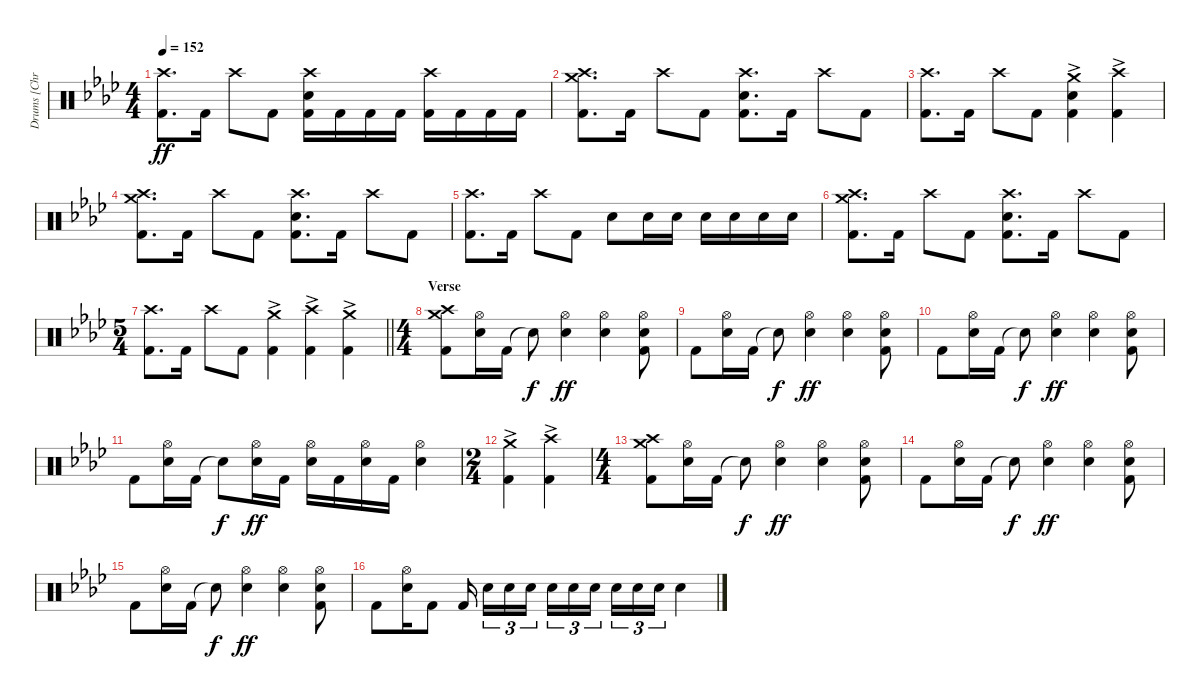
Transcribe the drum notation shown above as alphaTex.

\track ("Drums [Chris Hornbrook]" "Drums [Chr") {instrument percussion}
\staff {score}
\articulation defaults
\ts (4 4)
\tempo 152
\clef neutral
\ks fminor
("Crash high (hit)" "Kick (hit) 2").8{d dy ff} "Kick (hit) 2".16 "Crash high (hit)".8 "Kick (hit) 2".8 ("Crash high (hit)" "Electric Snare (hit)" "Kick (hit) 2").16 "Kick (hit) 2".16 "Kick (hit) 2".16 "Kick (hit) 2".16 ("Crash high (hit)" "Kick (hit) 2").16 "Kick (hit) 2".16 "Kick (hit) 2".16 "Kick (hit) 2".16 |
("Crash medium (hit)" "Crash high (hit)" "Kick (hit) 2").8{d} "Kick (hit) 2".16 "Crash high (hit)".8 "Kick (hit) 2".8 ("Crash high (hit)" "Electric Snare (hit)" "Kick (hit) 2").8{d} "Kick (hit) 2".16 "Crash high (hit)".8 "Kick (hit) 2".8 |
("Crash high (hit)" "Kick (hit) 2").8{d} "Kick (hit) 2".16 "Crash high (hit)".8 "Kick (hit) 2".8 ("Crash medium (hit)"{ac} "Electric Snare (hit)" "Kick (hit) 2").4 ("Crash high (hit)"{ac} "Kick (hit) 2").4 |
("Crash medium (hit)" "Crash high (hit)" "Kick (hit) 2").8{d} "Kick (hit) 2".16 "Crash high (hit)".8 "Kick (hit) 2".8 ("Crash high (hit)" "Electric Snare (hit)" "Kick (hit) 2").8{d} "Kick (hit) 2".16 "Crash high (hit)".8 "Kick (hit) 2".8 |
("Crash high (hit)" "Kick (hit) 2").8{d} "Kick (hit) 2".16 "Crash high (hit)".8 "Kick (hit) 2".8 "Electric Snare (hit)".8 "Electric Snare (hit)".16 "Electric Snare (hit)".16 "Electric Snare (hit)".16 "Electric Snare (hit)".16 "Electric Snare (hit)".16 "Electric Snare (hit)".16 |
("Crash medium (hit)" "Crash high (hit)" "Kick (hit) 2").8{d} "Kick (hit) 2".16 "Crash high (hit)".8 "Kick (hit) 2".8 ("Crash high (hit)" "Electric Snare (hit)" "Kick (hit) 2").8{d} "Kick (hit) 2".16 "Crash high (hit)".8 "Kick (hit) 2".8 |
\ts (5 4)
\barLineRight lightlight
("Crash high (hit)" "Kick (hit) 2").8{d} "Kick (hit) 2".16 "Crash high (hit)".8 "Kick (hit) 2".8 ("Crash medium (hit)"{ac} "Kick (hit) 2").4 ("Crash high (hit)"{ac} "Kick (hit) 2").4 ("Crash medium (hit)"{ac} "Kick (hit) 2").4 |
\ts (4 4)
\section ("" "Verse")
("Crash medium (hit)" "Crash high (hit)" "Kick (hit) 2").8 ("Hi-Hat (open)" "Electric Snare (hit)").16 "Kick (hit) 2".16 "Snare (hit)"{t}.8{dy f} ("Hi-Hat (open)" "Electric Snare (hit)").4{dy ff} ("Hi-Hat (open)" "Electric Snare (hit)").4 ("Hi-Hat (open)" "Electric Snare (hit)" "Kick (hit) 2").8 |
"Kick (hit) 2".8 ("Hi-Hat (open)" "Electric Snare (hit)").16 "Kick (hit) 2".16 "Snare (hit)"{t}.8{dy f} ("Hi-Hat (open)" "Electric Snare (hit)").4{dy ff} ("Hi-Hat (open)" "Electric Snare (hit)").4 ("Hi-Hat (open)" "Electric Snare (hit)" "Kick (hit) 2").8 |
"Kick (hit) 2".8 ("Hi-Hat (open)" "Electric Snare (hit)").16 "Kick (hit) 2".16 "Snare (hit)"{t}.8{dy f} ("Hi-Hat (open)" "Electric Snare (hit)").4{dy ff} ("Hi-Hat (open)" "Electric Snare (hit)").4 ("Hi-Hat (open)" "Electric Snare (hit)" "Kick (hit) 2").8 |
"Kick (hit) 2".8 ("Hi-Hat (open)" "Electric Snare (hit)").16 "Kick (hit) 2".16 "Snare (hit)"{t}.8{dy f} ("Hi-Hat (open)" "Electric Snare (hit)").16{dy ff} "Kick (hit) 2".16 ("Hi-Hat (open)" "Electric Snare (hit)").16 "Kick (hit) 2".16 ("Hi-Hat (open)" "Electric Snare (hit)").16 "Kick (hit) 2".16 ("Hi-Hat (open)" "Electric Snare (hit)").4 |
\ts (2 4)
("Crash medium (hit)"{ac} "Kick (hit) 2").4 ("Crash high (hit)"{ac} "Kick (hit) 2").4 |
\ts (4 4)
("Crash medium (hit)" "Crash high (hit)" "Kick (hit) 2").8 ("Hi-Hat (open)" "Electric Snare (hit)").16 "Kick (hit) 2".16 "Snare (hit)"{t}.8{dy f} ("Hi-Hat (open)" "Electric Snare (hit)").4{dy ff} ("Hi-Hat (open)" "Electric Snare (hit)").4 ("Hi-Hat (open)" "Electric Snare (hit)" "Kick (hit) 2").8 |
"Kick (hit) 2".8 ("Hi-Hat (open)" "Electric Snare (hit)").16 "Kick (hit) 2".16 "Snare (hit)"{t}.8{dy f} ("Hi-Hat (open)" "Electric Snare (hit)").4{dy ff} ("Hi-Hat (open)" "Electric Snare (hit)").4 ("Hi-Hat (open)" "Electric Snare (hit)" "Kick (hit) 2").8 |
"Kick (hit) 2".8 ("Hi-Hat (open)" "Electric Snare (hit)").16 "Kick (hit) 2".16 "Snare (hit)"{t}.8{dy f} ("Hi-Hat (open)" "Electric Snare (hit)").4{dy ff} ("Hi-Hat (open)" "Electric Snare (hit)").4 ("Hi-Hat (open)" "Electric Snare (hit)" "Kick (hit) 2").8 |
"Kick (hit) 2".8 ("Hi-Hat (open)" "Electric Snare (hit)").16 "Kick (hit) 2".8 "Kick (hit) 2".16{beam splitsecondary} "Electric Snare (hit)".16{tu (3 2)} "Electric Snare (hit)".16{tu (3 2)} "Electric Snare (hit)".16{tu (3 2)} "Electric Snare (hit)".16{tu (3 2)} "Electric Snare (hit)".16{tu (3 2)} "Electric Snare (hit)".16{tu (3 2) beam splitsecondary} "Electric Snare (hit)".16{tu (3 2)} "Electric Snare (hit)".16{tu (3 2)} "Electric Snare (hit)".16{tu (3 2)} "Electric Snare (hit)".4
